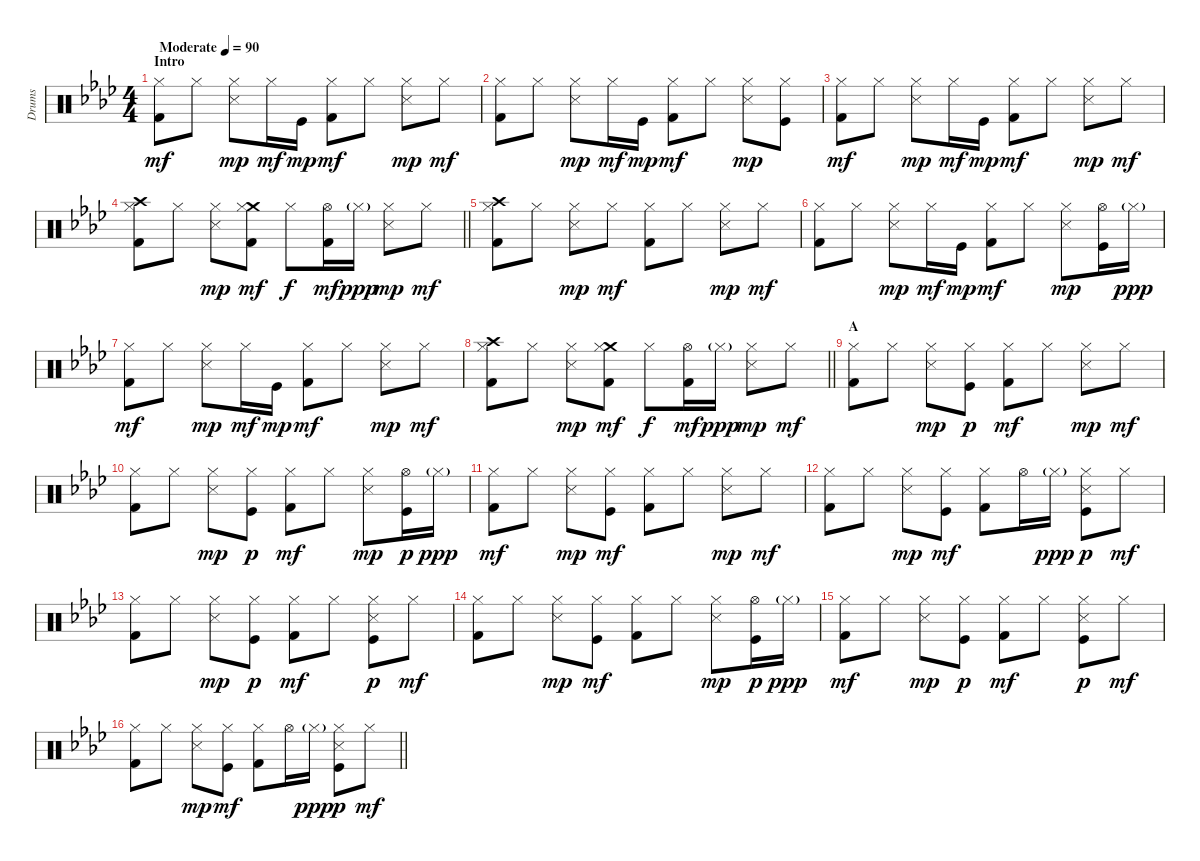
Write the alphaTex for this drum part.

\track ("Drums" "Drums") {instrument percussion}
\staff {score}
\articulation defaults
\ts (4 4)
\section ("" "Intro")
\tempo (90 "Moderate")
\clef neutral
\ks ab
("Hi-Hat (closed)" "Kick (hit) 2").8{dy mf} "Hi-Hat (closed)".8 ("Hi-Hat (closed)" "Snare (side stick) 3").8{dy mp} "Hi-Hat (closed)".16{dy mf} "Kick (hit)".16{dy mp} ("Hi-Hat (closed)" "Kick (hit) 2").8{dy mf} "Hi-Hat (closed)".8 ("Hi-Hat (closed)" "Snare (side stick) 3").8{dy mp} "Hi-Hat (closed)".8{dy mf} |
("Hi-Hat (closed)" "Kick (hit) 2").8 "Hi-Hat (closed)".8 ("Hi-Hat (closed)" "Snare (side stick) 3").8{dy mp} "Hi-Hat (closed)".16{dy mf} "Kick (hit)".16{dy mp} ("Hi-Hat (closed)" "Kick (hit) 2").8{dy mf} "Hi-Hat (closed)".8 ("Hi-Hat (closed)" "Snare (side stick) 3").8{dy mp} ("Hi-Hat (closed)" "Kick (hit)").8 |
("Hi-Hat (closed)" "Kick (hit) 2").8{dy mf} "Hi-Hat (closed)".8 ("Hi-Hat (closed)" "Snare (side stick) 3").8{dy mp} "Hi-Hat (closed)".16{dy mf} "Kick (hit)".16{dy mp} ("Hi-Hat (closed)" "Kick (hit) 2").8{dy mf} "Hi-Hat (closed)".8 ("Hi-Hat (closed)" "Snare (side stick) 3").8{dy mp} "Hi-Hat (closed)".8{dy mf} |
\barLineRight lightlight
("Crash high (hit)" "Hi-Hat (closed)" "Kick (hit) 2").8 "Hi-Hat (closed)".8 ("Hi-Hat (closed)" "Snare (side stick) 3").8{dy mp} ("Crash medium (hit)" "Hi-Hat (closed)" "Kick (hit) 2").8{dy mf} "Hi-Hat (closed)".8{dy f} ("Hi-Hat (open)" "Kick (hit) 2").16{dy mf} "Hi-Hat (closed)"{g}.16{dy ppp} ("Hi-Hat (closed)" "Snare (side stick) 3").8{dy mp} "Hi-Hat (closed)".8{dy mf} |
("Crash high (hit)" "Hi-Hat (closed)" "Kick (hit) 2").8 "Hi-Hat (closed)".8 ("Hi-Hat (closed)" "Snare (side stick) 3").8{dy mp} "Hi-Hat (closed)".8{dy mf} ("Hi-Hat (closed)" "Kick (hit) 2").8 "Hi-Hat (closed)".8 ("Hi-Hat (closed)" "Snare (side stick) 3").8{dy mp} "Hi-Hat (closed)".8{dy mf} |
("Hi-Hat (closed)" "Kick (hit) 2").8 "Hi-Hat (closed)".8 ("Hi-Hat (closed)" "Snare (side stick) 3").8{dy mp} "Hi-Hat (closed)".16{dy mf} "Kick (hit)".16{dy mp} ("Hi-Hat (closed)" "Kick (hit) 2").8{dy mf} "Hi-Hat (closed)".8 ("Hi-Hat (closed)" "Snare (side stick) 3").8{dy mp} ("Hi-Hat (open)" "Kick (hit)").16 "Hi-Hat (closed)"{g}.16{dy ppp} |
("Hi-Hat (closed)" "Kick (hit) 2").8{dy mf} "Hi-Hat (closed)".8 ("Hi-Hat (closed)" "Snare (side stick) 3").8{dy mp} "Hi-Hat (closed)".16{dy mf} "Kick (hit)".16{dy mp} ("Hi-Hat (closed)" "Kick (hit) 2").8{dy mf} "Hi-Hat (closed)".8 ("Hi-Hat (closed)" "Snare (side stick) 3").8{dy mp} "Hi-Hat (closed)".8{dy mf} |
\barLineRight lightlight
("Crash high (hit)" "Hi-Hat (closed)" "Kick (hit) 2").8 "Hi-Hat (closed)".8 ("Hi-Hat (closed)" "Snare (side stick) 3").8{dy mp} ("Crash medium (hit)" "Hi-Hat (closed)" "Kick (hit) 2").8{dy mf} "Hi-Hat (closed)".8{dy f} ("Hi-Hat (open)" "Kick (hit) 2").16{dy mf} "Hi-Hat (closed)"{g}.16{dy ppp} ("Hi-Hat (closed)" "Snare (side stick) 3").8{dy mp} "Hi-Hat (closed)".8{dy mf} |
\section ("" "A")
("Hi-Hat (closed)" "Kick (hit) 2").8 "Hi-Hat (closed)".8 ("Hi-Hat (closed)" "Snare (side stick) 3").8{dy mp} ("Hi-Hat (closed)" "Kick (hit)").8{dy p} ("Hi-Hat (closed)" "Kick (hit) 2").8{dy mf} "Hi-Hat (closed)".8 ("Hi-Hat (closed)" "Snare (side stick) 3").8{dy mp} "Hi-Hat (closed)".8{dy mf} |
("Hi-Hat (closed)" "Kick (hit) 2").8 "Hi-Hat (closed)".8 ("Hi-Hat (closed)" "Snare (side stick) 3").8{dy mp} ("Hi-Hat (closed)" "Kick (hit)").8{dy p} ("Hi-Hat (closed)" "Kick (hit) 2").8{dy mf} "Hi-Hat (closed)".8 ("Hi-Hat (closed)" "Snare (side stick) 3").8{dy mp} ("Hi-Hat (open)" "Kick (hit)").16{dy p} "Hi-Hat (closed)"{g}.16{dy ppp} |
("Hi-Hat (closed)" "Kick (hit) 2").8{dy mf} "Hi-Hat (closed)".8 ("Hi-Hat (closed)" "Snare (side stick) 3").8{dy mp} ("Hi-Hat (closed)" "Kick (hit)").8{dy mf} ("Hi-Hat (closed)" "Kick (hit) 2").8 "Hi-Hat (closed)".8 ("Hi-Hat (closed)" "Snare (side stick) 3").8{dy mp} "Hi-Hat (closed)".8{dy mf} |
("Hi-Hat (closed)" "Kick (hit) 2").8 "Hi-Hat (closed)".8 ("Hi-Hat (closed)" "Snare (side stick) 3").8{dy mp} ("Hi-Hat (closed)" "Kick (hit)").8{dy mf} ("Hi-Hat (closed)" "Kick (hit) 2").8 "Hi-Hat (open)".16 "Hi-Hat (closed)"{g}.16{dy ppp} ("Hi-Hat (closed)" "Snare (side stick) 3" "Kick (hit)").8{dy p} "Hi-Hat (closed)".8{dy mf} |
("Hi-Hat (closed)" "Kick (hit) 2").8 "Hi-Hat (closed)".8 ("Hi-Hat (closed)" "Snare (side stick) 3").8{dy mp} ("Hi-Hat (closed)" "Kick (hit)").8{dy p} ("Hi-Hat (closed)" "Kick (hit) 2").8{dy mf} "Hi-Hat (closed)".8 ("Hi-Hat (closed)" "Snare (side stick) 3" "Kick (hit)").8{dy p} "Hi-Hat (closed)".8{dy mf} |
("Hi-Hat (closed)" "Kick (hit) 2").8 "Hi-Hat (closed)".8 ("Hi-Hat (closed)" "Snare (side stick) 3").8{dy mp} ("Hi-Hat (closed)" "Kick (hit)").8{dy mf} ("Hi-Hat (closed)" "Kick (hit) 2").8 "Hi-Hat (closed)".8 ("Hi-Hat (closed)" "Snare (side stick) 3").8{dy mp} ("Hi-Hat (open)" "Kick (hit)").16{dy p} "Hi-Hat (closed)"{g}.16{dy ppp} |
("Hi-Hat (closed)" "Kick (hit) 2").8{dy mf} "Hi-Hat (closed)".8 ("Hi-Hat (closed)" "Snare (side stick) 3").8{dy mp} ("Hi-Hat (closed)" "Kick (hit)").8{dy p} ("Hi-Hat (closed)" "Kick (hit) 2").8{dy mf} "Hi-Hat (closed)".8 ("Hi-Hat (closed)" "Snare (side stick) 3" "Kick (hit)").8{dy p} "Hi-Hat (closed)".8{dy mf} |
\barLineRight lightlight
("Hi-Hat (closed)" "Kick (hit) 2").8 "Hi-Hat (closed)".8 ("Hi-Hat (closed)" "Snare (side stick) 3").8{dy mp} ("Hi-Hat (closed)" "Kick (hit)").8{dy mf} ("Hi-Hat (closed)" "Kick (hit) 2").8 "Hi-Hat (open)".16 "Hi-Hat (closed)"{g}.16{dy ppp} ("Hi-Hat (closed)" "Snare (side stick) 3" "Kick (hit)").8{dy p} "Hi-Hat (closed)".8{dy mf}
